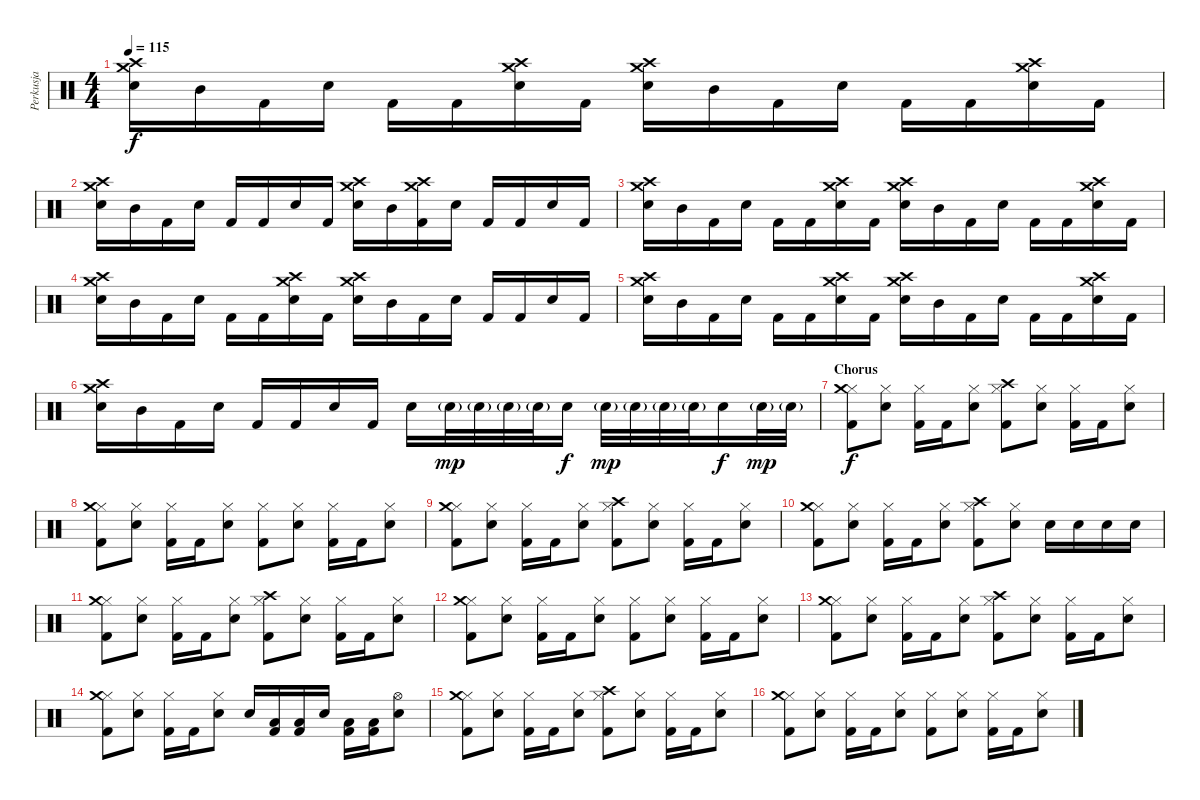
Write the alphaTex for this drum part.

\track ("Perkusja" "Perkusja") {instrument percussion}
\staff {score}
\articulation defaults
\ts (4 4)
\tempo 115
\clef neutral
\ks c
("Electric Snare (hit)" "Crash medium (hit)" "Crash high (hit)").16{dy f} "Mid Tom (hit)".16 "Kick (hit) 2".16 "Electric Snare (hit)".16 "Kick (hit) 2".16 "Kick (hit) 2".16 ("Electric Snare (hit)" "Crash medium (hit)" "Crash high (hit)").16 "Kick (hit) 2".16 ("Electric Snare (hit)" "Crash medium (hit)" "Crash high (hit)").16 "Mid Tom (hit)".16 "Kick (hit) 2".16 "Electric Snare (hit)".16 "Kick (hit) 2".16 "Kick (hit) 2".16 ("Electric Snare (hit)" "Crash medium (hit)" "Crash high (hit)").16 "Kick (hit) 2".16 |
("Electric Snare (hit)" "Crash medium (hit)" "Crash high (hit)").16 "Mid Tom (hit)".16 "Kick (hit) 2".16 "Electric Snare (hit)".16 "Kick (hit) 2".16 "Kick (hit) 2".16 "Electric Snare (hit)".16 "Kick (hit) 2".16 ("Electric Snare (hit)" "Crash medium (hit)" "Crash high (hit)").16 "Mid Tom (hit)".16 ("Kick (hit) 2" "Crash medium (hit)" "Crash high (hit)").16 "Electric Snare (hit)".16 "Kick (hit) 2".16 "Kick (hit) 2".16 "Electric Snare (hit)".16 "Kick (hit) 2".16 |
("Electric Snare (hit)" "Crash medium (hit)" "Crash high (hit)").16 "Mid Tom (hit)".16 "Kick (hit) 2".16 "Electric Snare (hit)".16 "Kick (hit) 2".16 "Kick (hit) 2".16 ("Electric Snare (hit)" "Crash medium (hit)" "Crash high (hit)").16 "Kick (hit) 2".16 ("Electric Snare (hit)" "Crash medium (hit)" "Crash high (hit)").16 "Mid Tom (hit)".16 "Kick (hit) 2".16 "Electric Snare (hit)".16 "Kick (hit) 2".16 "Kick (hit) 2".16 ("Electric Snare (hit)" "Crash medium (hit)" "Crash high (hit)").16 "Kick (hit) 2".16 |
("Electric Snare (hit)" "Crash medium (hit)" "Crash high (hit)").16 "Mid Tom (hit)".16 "Kick (hit) 2".16 "Electric Snare (hit)".16 "Kick (hit) 2".16 "Kick (hit) 2".16 ("Electric Snare (hit)" "Crash medium (hit)" "Crash high (hit)").16 "Kick (hit) 2".16 ("Electric Snare (hit)" "Crash medium (hit)" "Crash high (hit)").16 "Mid Tom (hit)".16 "Kick (hit) 2".16 "Electric Snare (hit)".16 "Kick (hit) 2".16 "Kick (hit) 2".16 "Electric Snare (hit)".16 "Kick (hit) 2".16 |
("Electric Snare (hit)" "Crash medium (hit)" "Crash high (hit)").16 "Mid Tom (hit)".16 "Kick (hit) 2".16 "Electric Snare (hit)".16 "Kick (hit) 2".16 "Kick (hit) 2".16 ("Electric Snare (hit)" "Crash medium (hit)" "Crash high (hit)").16 "Kick (hit) 2".16 ("Electric Snare (hit)" "Crash medium (hit)" "Crash high (hit)").16 "Mid Tom (hit)".16 "Kick (hit) 2".16 "Electric Snare (hit)".16 "Kick (hit) 2".16 "Kick (hit) 2".16 ("Electric Snare (hit)" "Crash medium (hit)" "Crash high (hit)").16 "Kick (hit) 2".16 |
("Electric Snare (hit)" "Crash medium (hit)" "Crash high (hit)").16 "Mid Tom (hit)".16 "Kick (hit) 2".16 "Electric Snare (hit)".16 "Kick (hit) 2".16 "Kick (hit) 2".16 "Electric Snare (hit)".16 "Kick (hit) 2".16 "Electric Snare (hit)".16 "Electric Snare (hit)"{g}.32{dy mp} "Electric Snare (hit)"{g}.32 "Electric Snare (hit)"{g}.32 "Electric Snare (hit)"{g}.32 "Electric Snare (hit)".16{dy f} "Electric Snare (hit)"{g}.32{dy mp} "Electric Snare (hit)"{g}.32 "Electric Snare (hit)"{g}.32 "Electric Snare (hit)"{g}.32 "Electric Snare (hit)".16{dy f} "Electric Snare (hit)"{g}.32{dy mp} "Electric Snare (hit)"{g}.32 |
\section ("" "Chorus")
("Hi-Hat (closed)" "Kick (hit) 2" "Crash medium (hit)").8{dy f} ("Hi-Hat (closed)" "Electric Snare (hit)").8 ("Hi-Hat (closed)" "Kick (hit) 2").16 "Kick (hit) 2".16 ("Hi-Hat (closed)" "Electric Snare (hit)").8 ("Hi-Hat (closed)" "Kick (hit) 2" "Crash high (hit)").8 ("Hi-Hat (closed)" "Electric Snare (hit)").8 ("Hi-Hat (closed)" "Kick (hit) 2").16 "Kick (hit) 2".16 ("Hi-Hat (closed)" "Electric Snare (hit)").8 |
("Hi-Hat (closed)" "Kick (hit) 2" "Crash medium (hit)").8 ("Hi-Hat (closed)" "Electric Snare (hit)").8 ("Hi-Hat (closed)" "Kick (hit) 2").16 "Kick (hit) 2".16 ("Hi-Hat (closed)" "Electric Snare (hit)").8 ("Hi-Hat (closed)" "Kick (hit) 2").8 ("Hi-Hat (closed)" "Electric Snare (hit)").8 ("Hi-Hat (closed)" "Kick (hit) 2").16 "Kick (hit) 2".16 ("Hi-Hat (closed)" "Electric Snare (hit)").8 |
("Hi-Hat (closed)" "Kick (hit) 2" "Crash medium (hit)").8 ("Hi-Hat (closed)" "Electric Snare (hit)").8 ("Hi-Hat (closed)" "Kick (hit) 2").16 "Kick (hit) 2".16 ("Hi-Hat (closed)" "Electric Snare (hit)").8 ("Hi-Hat (closed)" "Kick (hit) 2" "Crash high (hit)").8 ("Hi-Hat (closed)" "Electric Snare (hit)").8 ("Hi-Hat (closed)" "Kick (hit) 2").16 "Kick (hit) 2".16 ("Hi-Hat (closed)" "Electric Snare (hit)").8 |
("Hi-Hat (closed)" "Kick (hit) 2" "Crash medium (hit)").8 ("Hi-Hat (closed)" "Electric Snare (hit)").8 ("Hi-Hat (closed)" "Kick (hit) 2").16 "Kick (hit) 2".16 ("Hi-Hat (closed)" "Electric Snare (hit)").8 ("Hi-Hat (closed)" "Kick (hit) 2" "Crash high (hit)").8 ("Hi-Hat (closed)" "Electric Snare (hit)").8 "Electric Snare (hit)".16 "Electric Snare (hit)".16 "Electric Snare (hit)".16 "Electric Snare (hit)".16 |
("Hi-Hat (closed)" "Kick (hit) 2" "Crash medium (hit)").8 ("Hi-Hat (closed)" "Electric Snare (hit)").8 ("Hi-Hat (closed)" "Kick (hit) 2").16 "Kick (hit) 2".16 ("Hi-Hat (closed)" "Electric Snare (hit)").8 ("Hi-Hat (closed)" "Kick (hit) 2" "Crash high (hit)").8 ("Hi-Hat (closed)" "Electric Snare (hit)").8 ("Hi-Hat (closed)" "Kick (hit) 2").16 "Kick (hit) 2".16 ("Hi-Hat (closed)" "Electric Snare (hit)").8 |
("Hi-Hat (closed)" "Kick (hit) 2" "Crash medium (hit)").8 ("Hi-Hat (closed)" "Electric Snare (hit)").8 ("Hi-Hat (closed)" "Kick (hit) 2").16 "Kick (hit) 2".16 ("Hi-Hat (closed)" "Electric Snare (hit)").8 ("Hi-Hat (closed)" "Kick (hit) 2").8 ("Hi-Hat (closed)" "Electric Snare (hit)").8 ("Hi-Hat (closed)" "Kick (hit) 2").16 "Kick (hit) 2".16 ("Hi-Hat (closed)" "Electric Snare (hit)").8 |
("Hi-Hat (closed)" "Kick (hit) 2" "Crash medium (hit)").8 ("Hi-Hat (closed)" "Electric Snare (hit)").8 ("Hi-Hat (closed)" "Kick (hit) 2").16 "Kick (hit) 2".16 ("Hi-Hat (closed)" "Electric Snare (hit)").8 ("Hi-Hat (closed)" "Kick (hit) 2" "Crash high (hit)").8 ("Hi-Hat (closed)" "Electric Snare (hit)").8 ("Hi-Hat (closed)" "Kick (hit) 2").16 "Kick (hit) 2".16 ("Hi-Hat (closed)" "Electric Snare (hit)").8 |
("Hi-Hat (closed)" "Kick (hit) 2" "Crash medium (hit)").8 ("Hi-Hat (closed)" "Electric Snare (hit)").8 ("Hi-Hat (closed)" "Kick (hit) 2").16 "Kick (hit) 2".16 ("Hi-Hat (closed)" "Electric Snare (hit)").8 "Electric Snare (hit)".16 ("Low Tom (hit)" "Kick (hit) 2").16 ("Low Tom (hit)" "Kick (hit) 2").16 "Electric Snare (hit)".16 ("Low Tom (hit)" "Kick (hit) 2").16 ("Low Tom (hit)" "Kick (hit) 2").16 ("Electric Snare (hit)" "Hi-Hat (open)").8 |
("Hi-Hat (closed)" "Kick (hit) 2" "Crash medium (hit)").8 ("Hi-Hat (closed)" "Electric Snare (hit)").8 ("Hi-Hat (closed)" "Kick (hit) 2").16 "Kick (hit) 2".16 ("Hi-Hat (closed)" "Electric Snare (hit)").8 ("Hi-Hat (closed)" "Kick (hit) 2" "Crash high (hit)").8 ("Hi-Hat (closed)" "Electric Snare (hit)").8 ("Hi-Hat (closed)" "Kick (hit) 2").16 "Kick (hit) 2".16 ("Hi-Hat (closed)" "Electric Snare (hit)").8 |
("Hi-Hat (closed)" "Kick (hit) 2" "Crash medium (hit)").8 ("Hi-Hat (closed)" "Electric Snare (hit)").8 ("Hi-Hat (closed)" "Kick (hit) 2").16 "Kick (hit) 2".16 ("Hi-Hat (closed)" "Electric Snare (hit)").8 ("Hi-Hat (closed)" "Kick (hit) 2").8 ("Hi-Hat (closed)" "Electric Snare (hit)").8 ("Hi-Hat (closed)" "Kick (hit) 2").16 "Kick (hit) 2".16 ("Hi-Hat (closed)" "Electric Snare (hit)").8
